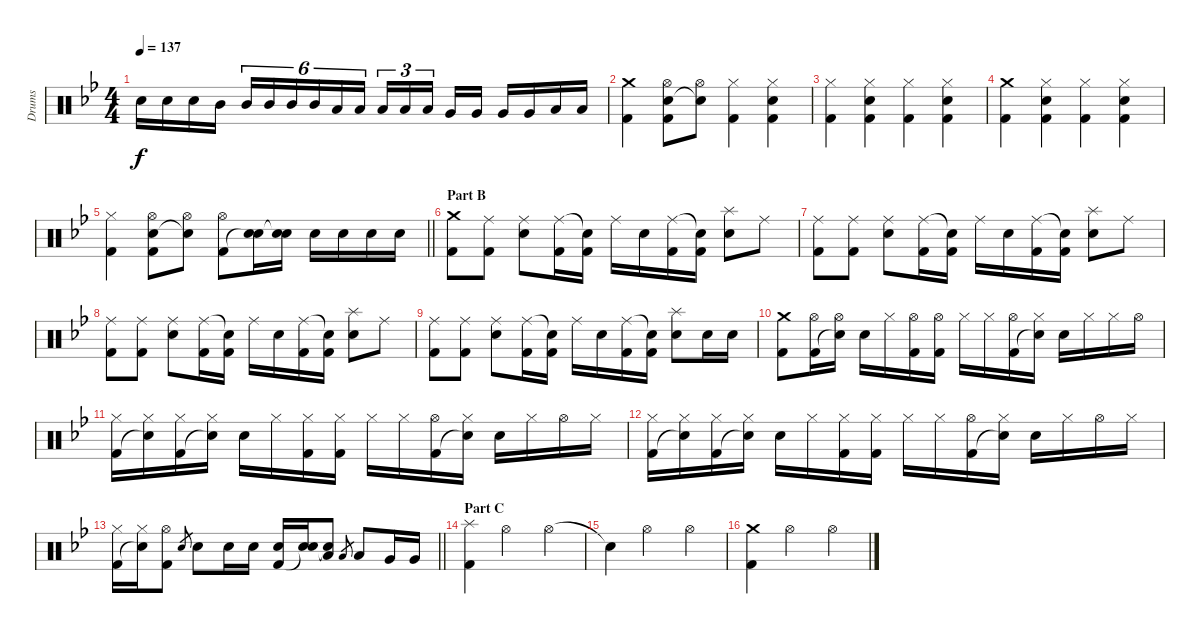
\track ("Drums" "Drums") {instrument percussion}
\staff {score}
\articulation defaults
\ts (4 4)
\tempo 137
\clef neutral
\ks bb "Electric Snare (hit)".16{dy f} "Electric Snare (hit)".16 "Electric Snare (hit)".16 "Mid Tom (hit)".16 "Mid Tom (hit)".16{tu (6 4)} "Mid Tom (hit)".16{tu (6 4)} "Mid Tom (hit)".16{tu (6 4)} "Mid Tom (hit)".16{tu (6 4)} "Low Tom (hit)".16{tu (6 4)} "Low Tom (hit)".16{tu (6 4)} "Low Tom (hit)".16{tu (3 2)} "Low Tom (hit)".16{tu (3 2)} "Low Tom (hit)".16{tu (3 2)} "Very Low Tom (hit)".16 "Very Low Tom (hit)".16 "Very Low Tom (hit)".16 "Very Low Tom (hit)".16 "Low Floor Tom (hit)".16 "Low Floor Tom (hit)".16
|
("Crash medium (hit)" "Kick (hit) 2").4 ("Hi-Hat (open)" "Electric Snare (hit)" "Kick (hit) 2").8 ("Hi-Hat (open)" "Snare (hit)"{t}).8 ("Hi-Hat (closed)" "Kick (hit) 2").4 ("Hi-Hat (closed)" "Electric Snare (hit)" "Kick (hit) 2").4 |
("Hi-Hat (closed)" "Kick (hit) 2").4 ("Hi-Hat (closed)" "Electric Snare (hit)" "Kick (hit) 2").4 ("Hi-Hat (closed)" "Kick (hit) 2").4 ("Hi-Hat (closed)" "Electric Snare (hit)" "Kick (hit) 2").4 |
("Crash medium (hit)" "Kick (hit) 2").4 ("Hi-Hat (closed)" "Electric Snare (hit)" "Kick (hit) 2").4 ("Hi-Hat (closed)" "Kick (hit) 2").4 ("Hi-Hat (closed)" "Electric Snare (hit)" "Kick (hit) 2").4 |
\barLineRight lightlight
("Hi-Hat (closed)" "Kick (hit) 2").4 ("Hi-Hat (open)" "Electric Snare (hit)" "Kick (hit) 2").8 ("Hi-Hat (open)" "Snare (hit)"{t}).8 ("Hi-Hat (open)" "Kick (hit) 2").8 ("Electric Snare (hit)" "Snare (hit)"{t}).16 ("Electric Snare (hit)" "Snare (hit)"{t}).16 "Electric Snare (hit)".16 "Electric Snare (hit)".16 "Electric Snare (hit)".16 "Electric Snare (hit)".16 |
\section ("" "Part B")
("Crash medium (hit)" "Kick (hit) 2").8 ("Ride (middle)" "Kick (hit) 2").8 ("Ride (middle)" "Electric Snare (hit)").8 ("Ride (middle)" "Kick (hit) 2").16 ("Snare (hit)"{t} "Kick (hit) 2").16 "Ride (middle)".16 "Electric Snare (hit)".16 ("Ride (middle)" "Kick (hit) 2").16 ("Snare (hit)"{t} "Kick (hit) 2").16 ("Splash (hit)" "Electric Snare (hit)").8 "Ride (middle)".8 |
("Ride (middle)" "Kick (hit) 2").8 ("Ride (middle)" "Kick (hit) 2").8 ("Ride (middle)" "Electric Snare (hit)").8 ("Ride (middle)" "Kick (hit) 2").16 ("Snare (hit)"{t} "Kick (hit) 2").16 "Ride (middle)".16 "Electric Snare (hit)".16 ("Ride (middle)" "Kick (hit) 2").16 ("Snare (hit)"{t} "Kick (hit) 2").16 ("Splash (hit)" "Electric Snare (hit)").8 "Ride (middle)".8 |
("Ride (middle)" "Kick (hit) 2").8 ("Ride (middle)" "Kick (hit) 2").8 ("Ride (middle)" "Electric Snare (hit)").8 ("Ride (middle)" "Kick (hit) 2").16 ("Snare (hit)"{t} "Kick (hit) 2").16 "Ride (middle)".16 "Electric Snare (hit)".16 ("Ride (middle)" "Kick (hit) 2").16 ("Snare (hit)"{t} "Kick (hit) 2").16 ("Splash (hit)" "Electric Snare (hit)").8 "Ride (middle)".8 |
("Ride (middle)" "Kick (hit) 2").8 ("Ride (middle)" "Kick (hit) 2").8 ("Ride (middle)" "Electric Snare (hit)").8 ("Ride (middle)" "Kick (hit) 2").16 ("Snare (hit)"{t} "Kick (hit) 2").16 "Ride (middle)".16 "Electric Snare (hit)".16 ("Ride (middle)" "Kick (hit) 2").16 ("Snare (hit)"{t} "Kick (hit) 2").16 ("Splash (hit)" "Electric Snare (hit)").8 "Electric Snare (hit)".16 "Electric Snare (hit)".16 |
("Crash medium (hit)" "Kick (hit) 2").8 ("Hi-Hat (open)" "Kick (hit) 2").16 ("Hi-Hat (open)" "Snare (hit)"{t}).16 "Electric Snare (hit)".16 "Hi-Hat (closed)".16 ("Hi-Hat (open)" "Kick (hit) 2").16 ("Hi-Hat (open)" "Kick (hit) 2").16 "Hi-Hat (closed)".16 "Hi-Hat (closed)".16 ("Hi-Hat (open)" "Kick (hit) 2").16 ("Hi-Hat (closed)" "Snare (hit)"{t}).16 "Electric Snare (hit)".16 "Hi-Hat (closed)".16 "Hi-Hat (closed)".16 "Hi-Hat (open)".16 |
("Hi-Hat (closed)" "Kick (hit) 2").16 ("Hi-Hat (closed)" "Snare (hit)"{t}).16 ("Hi-Hat (closed)" "Kick (hit) 2").16 ("Hi-Hat (closed)" "Snare (hit)"{t}).16 "Electric Snare (hit)".16 "Hi-Hat (closed)".16 ("Hi-Hat (closed)" "Kick (hit) 2").16 ("Hi-Hat (closed)" "Kick (hit) 2").16 "Hi-Hat (closed)".16 "Hi-Hat (closed)".16 ("Hi-Hat (open)" "Kick (hit) 2").16 ("Hi-Hat (closed)" "Snare (hit)"{t}).16 "Electric Snare (hit)".16 "Hi-Hat (closed)".16 "Hi-Hat (open)".16 "Hi-Hat (closed)".16 |
("Hi-Hat (closed)" "Kick (hit) 2").16 ("Hi-Hat (closed)" "Snare (hit)"{t}).16 ("Hi-Hat (closed)" "Kick (hit) 2").16 ("Hi-Hat (closed)" "Snare (hit)"{t}).16 "Electric Snare (hit)".16 "Hi-Hat (closed)".16 ("Hi-Hat (closed)" "Kick (hit) 2").16 ("Hi-Hat (closed)" "Kick (hit) 2").16 "Hi-Hat (closed)".16 "Hi-Hat (closed)".16 ("Hi-Hat (open)" "Kick (hit) 2").16 ("Hi-Hat (closed)" "Snare (hit)"{t}).16 "Electric Snare (hit)".16 "Hi-Hat (closed)".16 "Hi-Hat (open)".16 "Hi-Hat (closed)".16 |
\barLineRight lightlight
("Hi-Hat (closed)" "Kick (hit) 2").16 ("Hi-Hat (closed)" "Snare (hit)"{t}).16 ("Hi-Hat (open)" "Kick (hit) 2").8 "Electric Snare (hit)".8{gr} "Electric Snare (hit)".8 "Electric Snare (hit)".16 "Electric Snare (hit)".16 ("Electric Snare (hit)" "Kick (hit) 2").16 ("Electric Snare (hit)" "Snare (hit)"{t}).16 ("Low Tom (hit)" "Snare (hit)"{t}).8 "Low Tom (hit)".8{gr} "Low Tom (hit)".8 "Very Low Tom (hit)".16 "Very Low Tom (hit)".16 |
\section ("" "Part C")
("Splash (hit)" "Kick (hit) 2").4 "Hi-Hat (open)".2 "Hi-Hat (open)".4 |
"Snare (hit)"{t}.4 "Hi-Hat (open)".2 "Hi-Hat (open)".4 |
("Crash medium (hit)" "Kick (hit) 2").4 "Hi-Hat (open)".2 "Hi-Hat (open)".4
